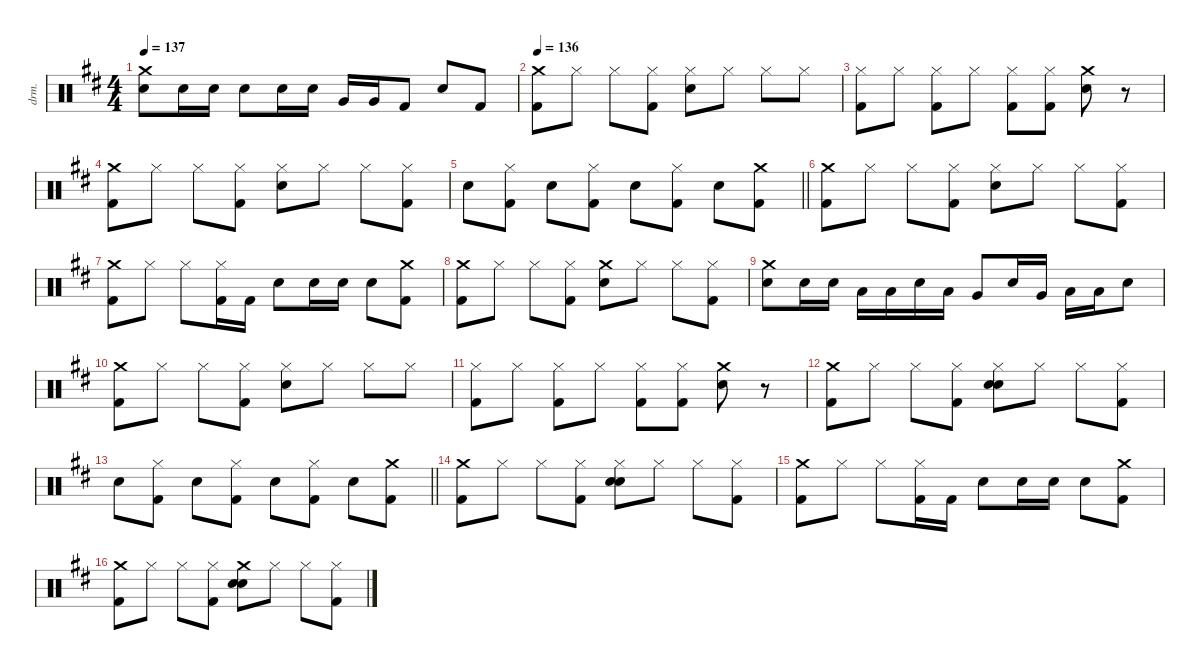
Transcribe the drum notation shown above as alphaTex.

\defaultSystemsLayout 4
\hideDynamics
\bracketExtendMode nobrackets
\otherSystemsTrackNameOrientation horizontal
\track ("Lars - Drums" "drm.") {instrument percussion}
\staff {score}
\articulation defaults
\ts (4 4)
\tempo 137
\clef neutral
\ks bminor
("Crash medium (hit)"{acc forcenatural} "Snare (hit) 2"{acc forcenatural}).8{dy f beam Down} "Snare (hit) 2"{acc forcenatural}.16{beam Down} "Snare (hit) 2"{acc forcenatural}.16{beam Down} "Snare (hit) 2"{acc forcenatural}.8{beam Down} "Snare (hit) 2"{acc forcenatural}.16{beam Down} "Snare (hit) 2"{acc forcenatural}.16{beam Down} "Very Low Tom (hit)"{acc forcenatural}.16{dy ff beam Up} "Very Low Tom (hit)"{acc forcenatural}.16{beam Up} "Kick (hit) 2"{acc forcenatural}.8{dy f beam Up} "Snare (hit) 2"{acc forcenatural}.8{beam Up} "Kick (hit) 2"{acc forcenatural}.8{beam Up} |
\tempo 136
("Crash medium (hit)"{acc forcenatural} "Kick (hit) 2"{acc forcenatural}).8{beam Down} "Hi-Hat (closed)"{acc forcenatural}.8{beam Down} "Hi-Hat (closed)"{acc forcenatural}.8{beam Down} ("Hi-Hat (closed)"{acc forcenatural} "Kick (hit) 2"{acc forcenatural}).8{beam Down} ("Hi-Hat (closed)"{acc forcenatural} "Snare (hit) 2"{acc forcenatural}).8{beam Down} "Hi-Hat (closed)"{acc forcenatural}.8{beam Down} "Hi-Hat (closed)"{acc forcenatural}.8{beam Down} "Hi-Hat (closed)"{acc forcenatural}.8{beam Down} |
("Hi-Hat (closed)"{acc forcenatural} "Kick (hit) 2"{acc forcenatural}).8{beam Down} "Hi-Hat (closed)"{acc forcenatural}.8{beam Down} ("Hi-Hat (closed)"{acc forcenatural} "Kick (hit) 2"{acc forcenatural}).8{beam Down} "Hi-Hat (closed)"{acc forcenatural}.8{beam Down} ("Hi-Hat (closed)"{acc forcenatural} "Kick (hit) 2"{acc forcenatural}).8{beam Down} ("Hi-Hat (closed)"{acc forcenatural} "Kick (hit) 2"{acc forcenatural}).8{beam Down} ("Crash medium (hit)"{acc forcenatural} "Snare (hit) 2"{acc forcenatural}).8{beam Down} r.8{beam Down} |
("Crash medium (hit)"{acc forcenatural} "Kick (hit) 2"{acc forcenatural}).8{beam Down} "Hi-Hat (closed)"{acc forcenatural}.8{beam Down} "Hi-Hat (closed)"{acc forcenatural}.8{beam Down} ("Hi-Hat (closed)"{acc forcenatural} "Kick (hit) 2"{acc forcenatural}).8{beam Down} ("Hi-Hat (closed)"{acc forcenatural} "Snare (hit) 2"{acc forcenatural}).8{beam Down} "Hi-Hat (closed)"{acc forcenatural}.8{beam Down} "Hi-Hat (closed)"{acc forcenatural}.8{beam Down} ("Hi-Hat (closed)"{acc forcenatural} "Kick (hit) 2"{acc forcenatural}).8{beam Down} |
\barLineRight lightlight "Snare (hit) 2"{acc forcenatural}.8{beam Down}
("Hi-Hat (closed)"{acc forcenatural} "Kick (hit) 2"{acc forcenatural}).8{beam Down} "Snare (hit) 2"{acc forcenatural}.8{beam Down} ("Hi-Hat (closed)"{acc forcenatural} "Kick (hit) 2"{acc forcenatural}).8{beam Down} "Snare (hit) 2"{acc forcenatural}.8{beam Down} ("Hi-Hat (closed)"{acc forcenatural} "Kick (hit) 2"{acc forcenatural}).8{beam Down} "Snare (hit) 2"{acc forcenatural}.8{beam Down} ("Crash medium (hit)"{acc forcenatural} "Kick (hit) 2"{acc forcenatural}).8{beam Down} |
("Crash medium (hit)"{acc forcenatural} "Kick (hit) 2"{acc forcenatural}).8{beam Down} "Hi-Hat (closed)"{acc forcenatural}.8{beam Down} "Hi-Hat (closed)"{acc forcenatural}.8{beam Down} ("Hi-Hat (closed)"{acc forcenatural} "Kick (hit) 2"{acc forcenatural}).8{beam Down} ("Hi-Hat (closed)"{acc forcenatural} "Snare (hit) 2"{acc forcenatural}).8{beam Down} "Hi-Hat (closed)"{acc forcenatural}.8{beam Down} "Hi-Hat (closed)"{acc forcenatural}.8{beam Down} ("Hi-Hat (closed)"{acc forcenatural} "Kick (hit) 2"{acc forcenatural}).8{beam Down} |
("Crash medium (hit)"{acc forcenatural} "Kick (hit) 2"{acc forcenatural}).8{beam Down} "Hi-Hat (closed)"{acc forcenatural}.8{beam Down} "Hi-Hat (closed)"{acc forcenatural}.8{beam Down} ("Hi-Hat (closed)"{acc forcenatural} "Kick (hit) 2"{acc forcenatural}).16{beam Down} "Kick (hit) 2"{acc forcenatural}.16{beam Down} "Snare (hit) 2"{acc forcenatural}.8{beam Down} "Snare (hit) 2"{acc forcenatural}.16{beam Down} "Snare (hit) 2"{acc forcenatural}.16{beam Down} "Snare (hit) 2"{acc forcenatural}.8{beam Down} ("Crash medium (hit)"{acc forcenatural} "Kick (hit) 2"{acc forcenatural}).8{beam Down} |
("Crash medium (hit)"{acc forcenatural} "Kick (hit) 2"{acc forcenatural}).8{beam Down} "Hi-Hat (closed)"{acc forcenatural}.8{beam Down} "Hi-Hat (closed)"{acc forcenatural}.8{beam Down} ("Hi-Hat (closed)"{acc forcenatural} "Kick (hit) 2"{acc forcenatural}).8{beam Down} ("Crash medium (hit)"{acc forcenatural} "Snare (hit) 2"{acc forcenatural}).8{beam Down} "Hi-Hat (closed)"{acc forcenatural}.8{beam Down} "Hi-Hat (closed)"{acc forcenatural}.8{beam Down} ("Hi-Hat (closed)"{acc forcenatural} "Kick (hit) 2"{acc forcenatural}).8{beam Down} |
("Crash medium (hit)"{acc forcenatural} "Snare (hit) 2"{acc forcenatural}).8{beam Down} "Snare (hit) 2"{acc forcenatural}.16{beam Down} "Snare (hit) 2"{acc forcenatural}.16{beam Down} "Low Tom (hit)"{acc forcenatural}.16{beam Down} "Low Tom (hit)"{acc forcenatural}.16{beam Down} "Snare (hit) 2"{acc forcenatural}.16{beam Down} "Low Tom (hit)"{acc forcenatural}.16{beam Down} "Very Low Tom (hit)"{acc forcenatural}.8{beam Up} "Snare (hit) 2"{acc forcenatural}.16{beam Up} "Very Low Tom (hit)"{acc forcenatural}.16{beam Up} "Low Floor Tom (hit)"{acc forcenatural}.16{beam Down} "Low Floor Tom (hit)"{acc forcenatural}.16{beam Down} "Snare (hit) 2"{acc forcenatural}.8{beam Down} |
("Crash medium (hit)"{acc forcenatural} "Kick (hit) 2"{acc forcenatural}).8{beam Down} "Hi-Hat (closed)"{acc forcenatural}.8{beam Down} "Hi-Hat (closed)"{acc forcenatural}.8{beam Down} ("Hi-Hat (closed)"{acc forcenatural} "Kick (hit) 2"{acc forcenatural}).8{beam Down} ("Hi-Hat (closed)"{acc forcenatural} "Snare (hit) 2"{acc forcenatural}).8{beam Down} "Hi-Hat (closed)"{acc forcenatural}.8{beam Down} "Hi-Hat (closed)"{acc forcenatural}.8{beam Down} "Hi-Hat (closed)"{acc forcenatural}.8{beam Down} |
("Hi-Hat (closed)"{acc forcenatural} "Kick (hit) 2"{acc forcenatural}).8{beam Down} "Hi-Hat (closed)"{acc forcenatural}.8{beam Down} ("Hi-Hat (closed)"{acc forcenatural} "Kick (hit) 2"{acc forcenatural}).8{beam Down} "Hi-Hat (closed)"{acc forcenatural}.8{beam Down} ("Hi-Hat (closed)"{acc forcenatural} "Kick (hit) 2"{acc forcenatural}).8{beam Down} ("Hi-Hat (closed)"{acc forcenatural} "Kick (hit) 2"{acc forcenatural}).8{beam Down} ("Crash medium (hit)"{acc forcenatural} "Snare (hit) 2"{acc forcenatural}).8{beam Down} r.8{beam Down} |
("Crash medium (hit)"{acc forcenatural} "Kick (hit) 2"{acc forcenatural}).8{beam Down} "Hi-Hat (closed)"{acc forcenatural}.8{beam Down} "Hi-Hat (closed)"{acc forcenatural}.8{beam Down} ("Hi-Hat (closed)"{acc forcenatural} "Kick (hit) 2"{acc forcenatural}).8{beam Down} ("Snare (hit) 2"{acc forcenatural} "Hi-Hat (closed)"{acc forcenatural} "Snare (hit) 2"{acc forcenatural}).8{dy ff beam Down} "Hi-Hat (closed)"{acc forcenatural}.8{dy f beam Down} "Hi-Hat (closed)"{acc forcenatural}.8{beam Down} ("Hi-Hat (closed)"{acc forcenatural} "Kick (hit) 2"{acc forcenatural}).8{beam Down} |
\barLineRight lightlight "Snare (hit) 2"{acc forcenatural}.8{beam Down}
("Hi-Hat (closed)"{acc forcenatural} "Kick (hit) 2"{acc forcenatural}).8{beam Down} "Snare (hit) 2"{acc forcenatural}.8{beam Down} ("Hi-Hat (closed)"{acc forcenatural} "Kick (hit) 2"{acc forcenatural}).8{beam Down} "Snare (hit) 2"{acc forcenatural}.8{beam Down} ("Hi-Hat (closed)"{acc forcenatural} "Kick (hit) 2"{acc forcenatural}).8{beam Down} "Snare (hit) 2"{acc forcenatural}.8{beam Down} ("Crash medium (hit)"{acc forcenatural} "Kick (hit) 2"{acc forcenatural}).8{beam Down} |
("Crash medium (hit)"{acc forcenatural} "Kick (hit) 2"{acc forcenatural}).8{beam Down} "Hi-Hat (closed)"{acc forcenatural}.8{beam Down} "Hi-Hat (closed)"{acc forcenatural}.8{beam Down} ("Hi-Hat (closed)"{acc forcenatural} "Kick (hit) 2"{acc forcenatural}).8{beam Down} ("Snare (hit) 2"{acc forcenatural} "Hi-Hat (closed)"{acc forcenatural} "Snare (hit) 2"{acc forcenatural}).8{dy ff beam Down} "Hi-Hat (closed)"{acc forcenatural}.8{dy f beam Down} "Hi-Hat (closed)"{acc forcenatural}.8{beam Down} ("Hi-Hat (closed)"{acc forcenatural} "Kick (hit) 2"{acc forcenatural}).8{beam Down} |
("Crash medium (hit)"{acc forcenatural} "Kick (hit) 2"{acc forcenatural}).8{beam Down} "Hi-Hat (closed)"{acc forcenatural}.8{beam Down} "Hi-Hat (closed)"{acc forcenatural}.8{beam Down} ("Hi-Hat (closed)"{acc forcenatural} "Kick (hit) 2"{acc forcenatural}).16{beam Down} "Kick (hit) 2"{acc forcenatural}.16{beam Down} "Snare (hit) 2"{acc forcenatural}.8{beam Down} "Snare (hit) 2"{acc forcenatural}.16{beam Down} "Snare (hit) 2"{acc forcenatural}.16{beam Down} "Snare (hit) 2"{acc forcenatural}.8{beam Down} ("Crash medium (hit)"{acc forcenatural} "Kick (hit) 2"{acc forcenatural}).8{beam Down} |
("Crash medium (hit)"{acc forcenatural} "Kick (hit) 2"{acc forcenatural}).8{beam Down} "Hi-Hat (closed)"{acc forcenatural}.8{beam Down} "Hi-Hat (closed)"{acc forcenatural}.8{beam Down} ("Hi-Hat (closed)"{acc forcenatural} "Kick (hit) 2"{acc forcenatural}).8{beam Down} ("Snare (hit) 2"{acc forcenatural} "Crash medium (hit)"{acc forcenatural} "Snare (hit) 2"{acc forcenatural}).8{dy ff beam Down} "Hi-Hat (closed)"{acc forcenatural}.8{dy f beam Down} "Hi-Hat (closed)"{acc forcenatural}.8{beam Down} ("Hi-Hat (closed)"{acc forcenatural} "Kick (hit) 2"{acc forcenatural}).8{beam Down}
